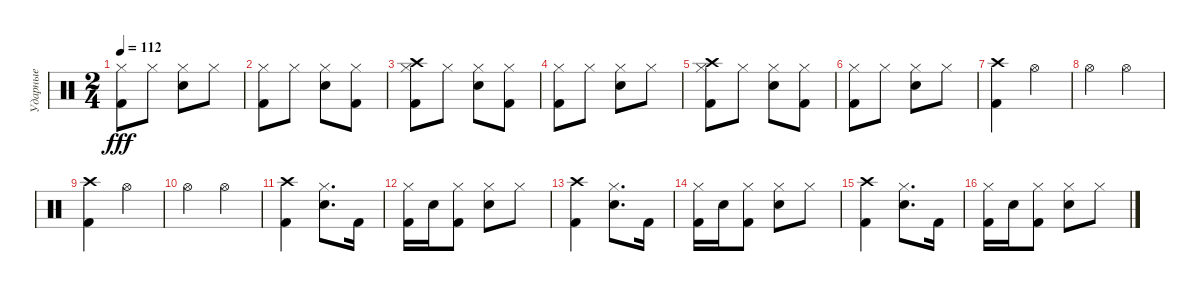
\track ("Ударные" "Ударные") {instrument percussion}
\staff {score}
\articulation defaults
\ts (2 4)
\tempo 112
\clef neutral
\ks c
("Kick (hit) 2" "Hi-Hat (closed)").8{dy fff} "Hi-Hat (closed)".8 ("Electric Snare (hit)" "Hi-Hat (closed)").8 "Hi-Hat (closed)".8 |
("Kick (hit) 2" "Hi-Hat (closed)").8 "Hi-Hat (closed)".8 ("Electric Snare (hit)" "Hi-Hat (closed)").8 ("Hi-Hat (closed)" "Kick (hit) 2").8 |
("Kick (hit) 2" "Hi-Hat (closed)" "Crash high (hit)").8 "Hi-Hat (closed)".8 ("Electric Snare (hit)" "Hi-Hat (closed)").8 ("Hi-Hat (closed)" "Kick (hit) 2").8 |
("Kick (hit) 2" "Hi-Hat (closed)").8 "Hi-Hat (closed)".8 ("Electric Snare (hit)" "Hi-Hat (closed)").8 "Hi-Hat (closed)".8 |
("Kick (hit) 2" "Hi-Hat (closed)" "Crash high (hit)").8 "Hi-Hat (closed)".8 ("Electric Snare (hit)" "Hi-Hat (closed)").8 ("Hi-Hat (closed)" "Kick (hit) 2").8 |
("Kick (hit) 2" "Hi-Hat (closed)").8 "Hi-Hat (closed)".8 ("Electric Snare (hit)" "Hi-Hat (closed)").8 "Hi-Hat (closed)".8 |
("Kick (hit) 2" "Crash high (hit)").4 "Hi-Hat (open)".4 |
"Hi-Hat (open)".4 "Hi-Hat (open)".4 |
("Kick (hit) 2" "Crash high (hit)").4 "Hi-Hat (open)".4 |
"Hi-Hat (open)".4 "Hi-Hat (open)".4 |
("Kick (hit) 2" "Crash high (hit)").4 ("Electric Snare (hit)" "Hi-Hat (closed)").8{d} "Kick (hit) 2".16 |
("Kick (hit) 2" "Hi-Hat (closed)").16 "Electric Snare (hit)".16 ("Kick (hit) 2" "Hi-Hat (closed)").8 ("Electric Snare (hit)" "Hi-Hat (closed)").8 "Hi-Hat (closed)".8 |
("Kick (hit) 2" "Crash high (hit)").4 ("Electric Snare (hit)" "Hi-Hat (closed)").8{d} "Kick (hit) 2".16 |
("Kick (hit) 2" "Hi-Hat (closed)").16 "Electric Snare (hit)".16 ("Kick (hit) 2" "Hi-Hat (closed)").8 ("Electric Snare (hit)" "Hi-Hat (closed)").8 "Hi-Hat (closed)".8 |
("Kick (hit) 2" "Crash high (hit)").4 ("Electric Snare (hit)" "Hi-Hat (closed)").8{d} "Kick (hit) 2".16 |
("Kick (hit) 2" "Hi-Hat (closed)").16 "Electric Snare (hit)".16 ("Kick (hit) 2" "Hi-Hat (closed)").8 ("Electric Snare (hit)" "Hi-Hat (closed)").8 "Hi-Hat (closed)".8
